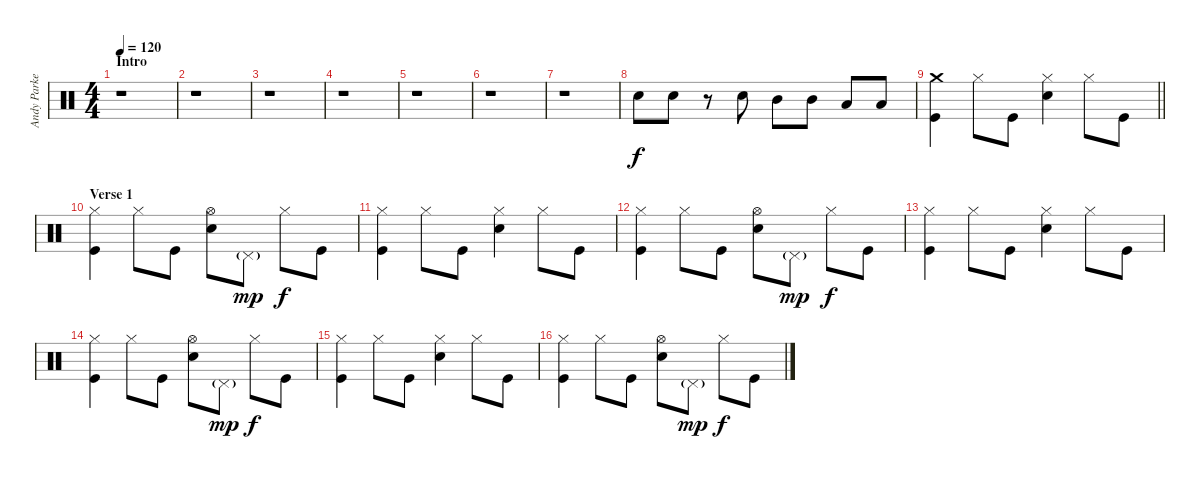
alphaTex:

\track ("Andy Parker" "Andy Parke") {instrument percussion}
\staff {score}
\articulation defaults
\ts (4 4)
\section ("" "Intro")
\tempo 120
\clef neutral
\ks c
r.1{dy f} |
r.1 |
r.1 |
r.1 |
r.1 |
r.1 |
r.1 |
"Snare (hit) 2".8 "Snare (hit) 2".8 r.8 "Snare (hit) 2".8 "Mid Tom (hit)".8 "Mid Tom (hit)".8 "Low Tom (hit)".8 "Low Tom (hit)".8 |
\barLineRight lightlight
("Crash medium (hit)" "Kick (hit)").4 "Hi-Hat (closed)".8 "Kick (hit)".8 ("Hi-Hat (closed)" "Snare (hit) 2").4 "Hi-Hat (closed)".8 "Kick (hit)".8 |
\section ("" "Verse 1")
("Hi-Hat (closed)" "Kick (hit)").4 "Hi-Hat (closed)".8 "Kick (hit)".8 ("Hi-Hat (open)" "Snare (hit) 2").8 "Pedal Hi-Hat (hit)"{g}.8{dy mp} "Hi-Hat (closed)".8{dy f} "Kick (hit)".8 |
("Hi-Hat (closed)" "Kick (hit)").4 "Hi-Hat (closed)".8 "Kick (hit)".8 ("Hi-Hat (closed)" "Snare (hit) 2").4 "Hi-Hat (closed)".8 "Kick (hit)".8 |
("Hi-Hat (closed)" "Kick (hit)").4 "Hi-Hat (closed)".8 "Kick (hit)".8 ("Hi-Hat (open)" "Snare (hit) 2").8 "Pedal Hi-Hat (hit)"{g}.8{dy mp} "Hi-Hat (closed)".8{dy f} "Kick (hit)".8 |
("Hi-Hat (closed)" "Kick (hit)").4 "Hi-Hat (closed)".8 "Kick (hit)".8 ("Hi-Hat (closed)" "Snare (hit) 2").4 "Hi-Hat (closed)".8 "Kick (hit)".8 |
("Hi-Hat (closed)" "Kick (hit)").4 "Hi-Hat (closed)".8 "Kick (hit)".8 ("Hi-Hat (open)" "Snare (hit) 2").8 "Pedal Hi-Hat (hit)"{g}.8{dy mp} "Hi-Hat (closed)".8{dy f} "Kick (hit)".8 |
("Hi-Hat (closed)" "Kick (hit)").4 "Hi-Hat (closed)".8 "Kick (hit)".8 ("Hi-Hat (closed)" "Snare (hit) 2").4 "Hi-Hat (closed)".8 "Kick (hit)".8 |
("Hi-Hat (closed)" "Kick (hit)").4 "Hi-Hat (closed)".8 "Kick (hit)".8 ("Hi-Hat (open)" "Snare (hit) 2").8 "Pedal Hi-Hat (hit)"{g}.8{dy mp} "Hi-Hat (closed)".8{dy f} "Kick (hit)".8
